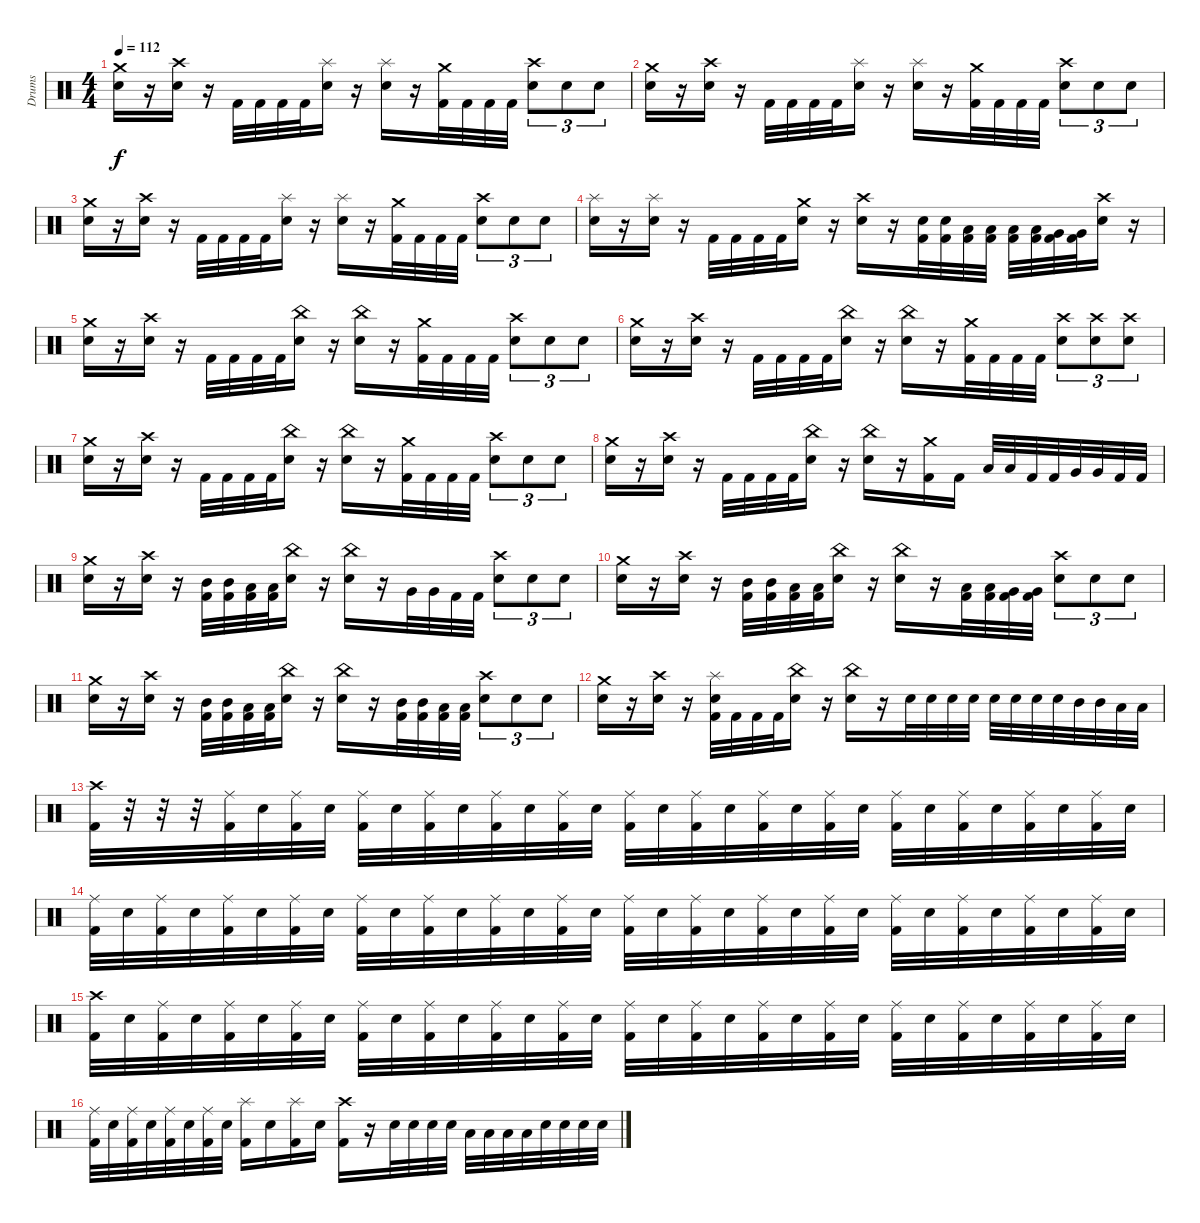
\track ("Drums" "Drums") {instrument percussion}
\staff {score}
\articulation defaults
\ts (4 4)
\tempo 112
\clef neutral
\ks c
("Crash medium (hit)" "Snare (hit) 2").16{dy f} r.16 ("Crash high (hit)" "Snare (hit) 2").16 r.16 "Kick (hit) 2".32 "Kick (hit) 2".32 "Kick (hit) 2".32 "Kick (hit) 2".32 ("Splash (hit)" "Snare (hit) 2").16 r.16 ("Splash (hit)" "Snare (hit) 2").16 r.16 ("Crash medium (hit)" "Kick (hit) 2").32 "Kick (hit) 2".32 "Kick (hit) 2".32 "Kick (hit) 2".32 ("Crash high (hit)" "Snare (hit) 2").8{tu (3 2)} "Snare (hit) 2".8{tu (3 2)} "Snare (hit) 2".8{tu (3 2)} |
("Crash medium (hit)" "Snare (hit) 2").16 r.16 ("Crash high (hit)" "Snare (hit) 2").16 r.16 "Kick (hit) 2".32 "Kick (hit) 2".32 "Kick (hit) 2".32 "Kick (hit) 2".32 ("Splash (hit)" "Snare (hit) 2").16 r.16 ("Splash (hit)" "Snare (hit) 2").16 r.16 ("Crash medium (hit)" "Kick (hit) 2").32 "Kick (hit) 2".32 "Kick (hit) 2".32 "Kick (hit) 2".32 ("Crash high (hit)" "Snare (hit) 2").8{tu (3 2)} "Snare (hit) 2".8{tu (3 2)} "Snare (hit) 2".8{tu (3 2)} |
("Crash medium (hit)" "Snare (hit) 2").16 r.16 ("Crash high (hit)" "Snare (hit) 2").16 r.16 "Kick (hit) 2".32 "Kick (hit) 2".32 "Kick (hit) 2".32 "Kick (hit) 2".32 ("Splash (hit)" "Snare (hit) 2").16 r.16 ("Splash (hit)" "Snare (hit) 2").16 r.16 ("Crash medium (hit)" "Kick (hit) 2").32 "Kick (hit) 2".32 "Kick (hit) 2".32 "Kick (hit) 2".32 ("Crash high (hit)" "Snare (hit) 2").8{tu (3 2)} "Snare (hit) 2".8{tu (3 2)} "Snare (hit) 2".8{tu (3 2)} |
("Splash (hit)" "Snare (hit) 2").16 r.16 ("Splash (hit)" "Snare (hit) 2").16 r.16 "Kick (hit) 2".32 "Kick (hit) 2".32 "Kick (hit) 2".32 "Kick (hit) 2".32 ("Crash medium (hit)" "Snare (hit) 2").16 r.16 ("Crash high (hit)" "Snare (hit) 2").16 r.16 ("Snare (hit) 2" "Kick (hit) 2").32 ("Snare (hit) 2" "Kick (hit) 2").32 ("Low Tom (hit)" "Kick (hit) 2").32 ("Low Tom (hit)" "Kick (hit) 2").32 ("Low Tom (hit)" "Kick (hit) 2").32 ("Low Tom (hit)" "Kick (hit) 2").32 ("Very Low Tom (hit)" "Kick (hit) 2").32 ("Very Low Tom (hit)" "Kick (hit) 2").32 ("Crash high (hit)" "Snare (hit) 2").16 r.16 |
("Crash medium (hit)" "Snare (hit) 2").16 r.16 ("Crash high (hit)" "Snare (hit) 2").16 r.16 "Kick (hit) 2".32 "Kick (hit) 2".32 "Kick (hit) 2".32 "Kick (hit) 2".32 ("China (hit)" "Snare (hit) 2").16 r.16 ("China (hit)" "Snare (hit) 2").16 r.16 ("Crash medium (hit)" "Kick (hit) 2").32 "Kick (hit) 2".32 "Kick (hit) 2".32 "Kick (hit) 2".32 ("Crash high (hit)" "Snare (hit) 2").8{tu (3 2)} "Snare (hit) 2".8{tu (3 2)} "Snare (hit) 2".8{tu (3 2)} |
("Crash medium (hit)" "Snare (hit) 2").16 r.16 ("Crash high (hit)" "Snare (hit) 2").16 r.16 "Kick (hit) 2".32 "Kick (hit) 2".32 "Kick (hit) 2".32 "Kick (hit) 2".32 ("China (hit)" "Snare (hit) 2").16 r.16 ("China (hit)" "Snare (hit) 2").16 r.16 ("Crash medium (hit)" "Kick (hit) 2").32 "Kick (hit) 2".32 "Kick (hit) 2".32 "Kick (hit) 2".32 ("Crash high (hit)" "Snare (hit) 2").8{tu (3 2)} ("Crash high (hit)" "Snare (hit) 2").8{tu (3 2)} ("Crash high (hit)" "Snare (hit) 2").8{tu (3 2)} |
("Crash medium (hit)" "Snare (hit) 2").16 r.16 ("Crash high (hit)" "Snare (hit) 2").16 r.16 "Kick (hit) 2".32 "Kick (hit) 2".32 "Kick (hit) 2".32 "Kick (hit) 2".32 ("China (hit)" "Snare (hit) 2").16 r.16 ("China (hit)" "Snare (hit) 2").16 r.16 ("Crash medium (hit)" "Kick (hit) 2").32 "Kick (hit) 2".32 "Kick (hit) 2".32 "Kick (hit) 2".32 ("Crash high (hit)" "Snare (hit) 2").8{tu (3 2)} "Snare (hit) 2".8{tu (3 2)} "Snare (hit) 2".8{tu (3 2)} |
("Crash medium (hit)" "Snare (hit) 2").16 r.16 ("Crash high (hit)" "Snare (hit) 2").16 r.16 "Kick (hit) 2".32 "Kick (hit) 2".32 "Kick (hit) 2".32 "Kick (hit) 2".32 ("China (hit)" "Snare (hit) 2").16 r.16 ("China (hit)" "Snare (hit) 2").16 r.16 ("Crash medium (hit)" "Kick (hit) 2").16 "Kick (hit) 2".16 "Low Tom (hit)".32 "Low Tom (hit)".32 "Kick (hit) 2".32 "Kick (hit) 2".32 "Very Low Tom (hit)".32 "Very Low Tom (hit)".32 "Kick (hit) 2".32 "Kick (hit) 2".32 |
("Crash medium (hit)" "Snare (hit) 2").16 r.16 ("Crash high (hit)" "Snare (hit) 2").16 r.16 ("Mid Tom (hit)" "Kick (hit) 2").32 ("Mid Tom (hit)" "Kick (hit) 2").32 ("Low Tom (hit)" "Kick (hit) 2").32 ("Low Tom (hit)" "Kick (hit) 2").32 ("China (hit)" "Snare (hit) 2").16 r.16 ("China (hit)" "Snare (hit) 2").16 r.16 "Very Low Tom (hit)".32 "Very Low Tom (hit)".32 "Kick (hit) 2".32 "Kick (hit) 2".32 ("Crash high (hit)" "Snare (hit) 2").8{tu (3 2)} "Snare (hit) 2".8{tu (3 2)} "Snare (hit) 2".8{tu (3 2)} |
("Crash medium (hit)" "Snare (hit) 2").16 r.16 ("Crash high (hit)" "Snare (hit) 2").16 r.16 ("Mid Tom (hit)" "Kick (hit) 2").32 ("Mid Tom (hit)" "Kick (hit) 2").32 ("Low Tom (hit)" "Kick (hit) 2").32 ("Low Tom (hit)" "Kick (hit) 2").32 ("China (hit)" "Snare (hit) 2").16 r.16 ("China (hit)" "Snare (hit) 2").16 r.16 ("Low Tom (hit)" "Kick (hit) 2").32 ("Low Tom (hit)" "Kick (hit) 2").32 ("Very Low Tom (hit)" "Kick (hit) 2").32 ("Very Low Tom (hit)" "Kick (hit) 2").32 ("Crash high (hit)" "Snare (hit) 2").8{tu (3 2)} "Snare (hit) 2".8{tu (3 2)} "Snare (hit) 2".8{tu (3 2)} |
("Crash medium (hit)" "Snare (hit) 2").16 r.16 ("Crash high (hit)" "Snare (hit) 2").16 r.16 ("Mid Tom (hit)" "Kick (hit) 2").32 ("Mid Tom (hit)" "Kick (hit) 2").32 ("Low Tom (hit)" "Kick (hit) 2").32 ("Low Tom (hit)" "Kick (hit) 2").32 ("China (hit)" "Snare (hit) 2").16 r.16 ("China (hit)" "Snare (hit) 2").16 r.16 ("Mid Tom (hit)" "Kick (hit) 2").32 ("Mid Tom (hit)" "Kick (hit) 2").32 ("Low Tom (hit)" "Kick (hit) 2").32 ("Low Tom (hit)" "Kick (hit) 2").32 ("Crash high (hit)" "Snare (hit) 2").8{tu (3 2)} "Snare (hit) 2".8{tu (3 2)} "Snare (hit) 2".8{tu (3 2)} |
("Crash medium (hit)" "Snare (hit) 2").16 r.16 ("Crash high (hit)" "Snare (hit) 2").16 r.16 ("Splash (hit)" "Snare (hit) 2" "Kick (hit) 2").32 "Kick (hit) 2".32 "Kick (hit) 2".32 "Kick (hit) 2".32 ("China (hit)" "Snare (hit) 2").16 r.16 ("China (hit)" "Snare (hit) 2").16 r.16 "Snare (hit) 2".32 "Snare (hit) 2".32 "Snare (hit) 2".32 "Snare (hit) 2".32 "Snare (hit) 2".32 "Snare (hit) 2".32 "Snare (hit) 2".32 "Snare (hit) 2".32 "Mid Tom (hit)".32 "Mid Tom (hit)".32 "Low Tom (hit)".32 "Low Tom (hit)".32 |
("Crash high (hit)" "Kick (hit) 2").32 r.32 r.32 r.32 ("Ride (middle)" "Kick (hit) 2").32 "Snare (hit) 2".32 ("Ride (middle)" "Kick (hit) 2").32 "Snare (hit) 2".32 ("Ride (middle)" "Kick (hit) 2").32 "Snare (hit) 2".32 ("Ride (middle)" "Kick (hit) 2").32 "Snare (hit) 2".32 ("Ride (middle)" "Kick (hit) 2").32 "Snare (hit) 2".32 ("Ride (middle)" "Kick (hit) 2").32 "Snare (hit) 2".32 ("Ride (middle)" "Kick (hit) 2").32 "Snare (hit) 2".32 ("Ride (middle)" "Kick (hit) 2").32 "Snare (hit) 2".32 ("Ride (middle)" "Kick (hit) 2").32 "Snare (hit) 2".32 ("Ride (middle)" "Kick (hit) 2").32 "Snare (hit) 2".32 ("Ride (middle)" "Kick (hit) 2").32 "Snare (hit) 2".32 ("Ride (middle)" "Kick (hit) 2").32 "Snare (hit) 2".32 ("Ride (middle)" "Kick (hit) 2").32 "Snare (hit) 2".32 ("Ride (middle)" "Kick (hit) 2").32 "Snare (hit) 2".32 |
("Ride (middle)" "Kick (hit) 2").32 "Snare (hit) 2".32 ("Ride (middle)" "Kick (hit) 2").32 "Snare (hit) 2".32 ("Ride (middle)" "Kick (hit) 2").32 "Snare (hit) 2".32 ("Ride (middle)" "Kick (hit) 2").32 "Snare (hit) 2".32 ("Ride (middle)" "Kick (hit) 2").32 "Snare (hit) 2".32 ("Ride (middle)" "Kick (hit) 2").32 "Snare (hit) 2".32 ("Ride (middle)" "Kick (hit) 2").32 "Snare (hit) 2".32 ("Ride (middle)" "Kick (hit) 2").32 "Snare (hit) 2".32 ("Ride (middle)" "Kick (hit) 2").32 "Snare (hit) 2".32 ("Ride (middle)" "Kick (hit) 2").32 "Snare (hit) 2".32 ("Ride (middle)" "Kick (hit) 2").32 "Snare (hit) 2".32 ("Ride (middle)" "Kick (hit) 2").32 "Snare (hit) 2".32 ("Ride (middle)" "Kick (hit) 2").32 "Snare (hit) 2".32 ("Ride (middle)" "Kick (hit) 2").32 "Snare (hit) 2".32 ("Ride (middle)" "Kick (hit) 2").32 "Snare (hit) 2".32 ("Ride (middle)" "Kick (hit) 2").32 "Snare (hit) 2".32 |
("Crash high (hit)" "Kick (hit) 2").32 "Snare (hit) 2".32 ("Ride (middle)" "Kick (hit) 2").32 "Snare (hit) 2".32 ("Ride (middle)" "Kick (hit) 2").32 "Snare (hit) 2".32 ("Ride (middle)" "Kick (hit) 2").32 "Snare (hit) 2".32 ("Ride (middle)" "Kick (hit) 2").32 "Snare (hit) 2".32 ("Ride (middle)" "Kick (hit) 2").32 "Snare (hit) 2".32 ("Ride (middle)" "Kick (hit) 2").32 "Snare (hit) 2".32 ("Ride (middle)" "Kick (hit) 2").32 "Snare (hit) 2".32 ("Ride (middle)" "Kick (hit) 2").32 "Snare (hit) 2".32 ("Ride (middle)" "Kick (hit) 2").32 "Snare (hit) 2".32 ("Ride (middle)" "Kick (hit) 2").32 "Snare (hit) 2".32 ("Ride (middle)" "Kick (hit) 2").32 "Snare (hit) 2".32 ("Ride (middle)" "Kick (hit) 2").32 "Snare (hit) 2".32 ("Ride (middle)" "Kick (hit) 2").32 "Snare (hit) 2".32 ("Ride (middle)" "Kick (hit) 2").32 "Snare (hit) 2".32 ("Ride (middle)" "Kick (hit) 2").32 "Snare (hit) 2".32 |
("Ride (middle)" "Kick (hit) 2").32 "Snare (hit) 2".32 ("Ride (middle)" "Kick (hit) 2").32 "Snare (hit) 2".32 ("Ride (middle)" "Kick (hit) 2").32 "Snare (hit) 2".32 ("Ride (middle)" "Kick (hit) 2").32 "Snare (hit) 2".32 ("Splash (hit)" "Kick (hit) 2").16 "Snare (hit) 2".16 ("Splash (hit)" "Kick (hit) 2").16 "Snare (hit) 2".16 ("Crash high (hit)" "Kick (hit) 2").16 r.16 "Snare (hit) 2".32 "Snare (hit) 2".32 "Snare (hit) 2".32 "Snare (hit) 2".32 "Low Tom (hit)".32 "Low Tom (hit)".32 "Low Tom (hit)".32 "Low Tom (hit)".32 "Snare (hit) 2".32 "Snare (hit) 2".32 "Snare (hit) 2".32 "Snare (hit) 2".32
